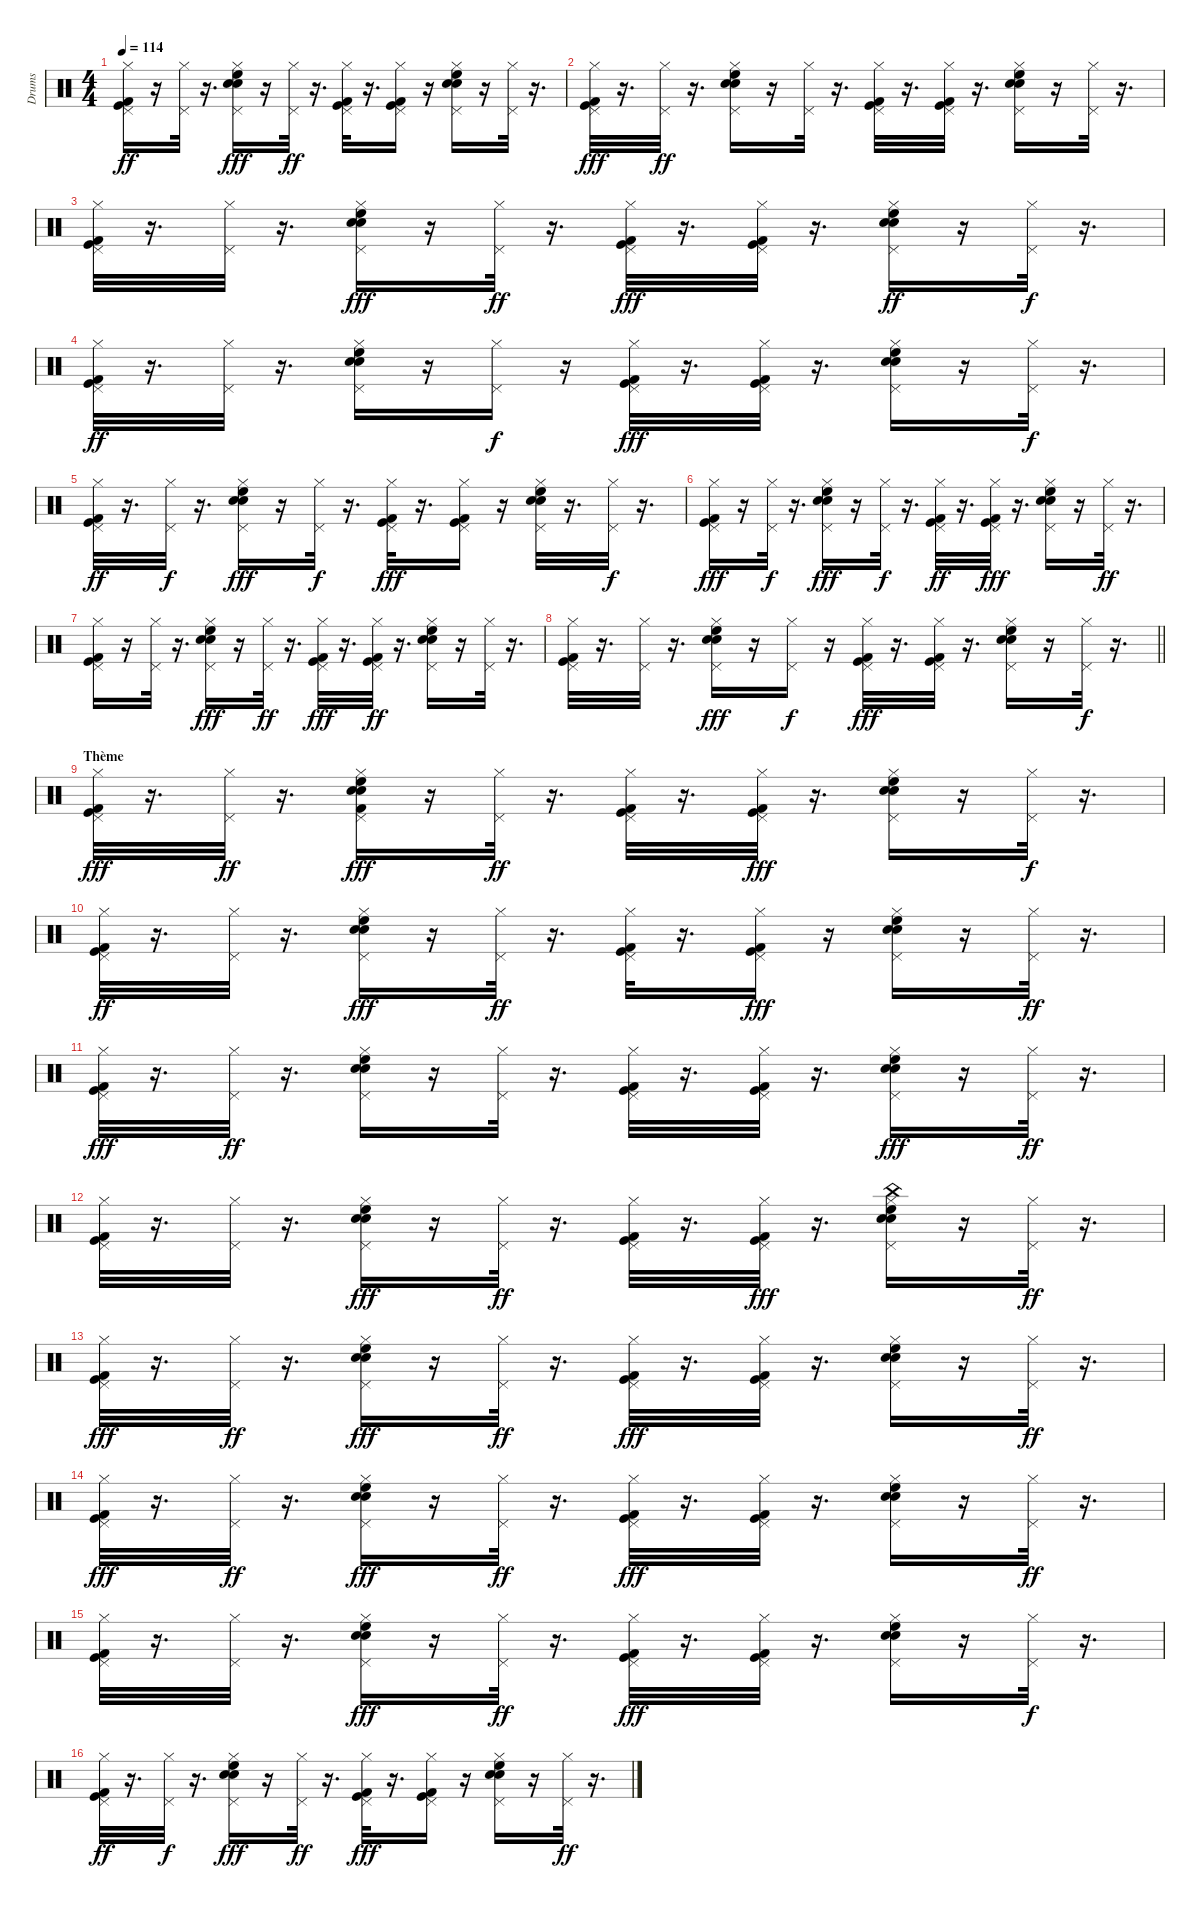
\track ("Drums" "Drums") {instrument percussion}
\staff {score}
\articulation defaults
\ts (4 4)
\tempo 114
\clef neutral
\ks c
("Kick (hit)" "Kick (hit) 2" "Pedal Hi-Hat (hit)" "Hi-Hat (closed)").16{dy ff} r.16 ("Pedal Hi-Hat (hit)" "Hi-Hat (closed)").32 r.16{d} ("Electric Snare (hit)" "Pedal Hi-Hat (hit)" "Hi-Hat (closed)" "High Floor Tom (hit)" "Snare (hit) 2").16{dy fff} r.16 ("Pedal Hi-Hat (hit)" "Hi-Hat (closed)").32{dy ff} r.16{d} ("Kick (hit)" "Kick (hit) 2" "Pedal Hi-Hat (hit)" "Hi-Hat (closed)").32 r.16{d} ("Kick (hit) 2" "Kick (hit)" "Pedal Hi-Hat (hit)" "Hi-Hat (closed)").16 r.16 ("Snare (hit) 2" "Electric Snare (hit)" "High Floor Tom (hit)" "Pedal Hi-Hat (hit)" "Hi-Hat (closed)").16 r.16 ("Pedal Hi-Hat (hit)" "Hi-Hat (closed)").32 r.16{d} |
("Kick (hit)" "Pedal Hi-Hat (hit)" "Hi-Hat (closed)" "Kick (hit) 2").32{dy fff} r.16{d} ("Pedal Hi-Hat (hit)" "Hi-Hat (closed)").32{dy ff} r.16{d} ("High Floor Tom (hit)" "Electric Snare (hit)" "Pedal Hi-Hat (hit)" "Snare (hit) 2" "Hi-Hat (closed)").16 r.16 ("Pedal Hi-Hat (hit)" "Hi-Hat (closed)").32 r.16{d} ("Kick (hit) 2" "Kick (hit)" "Pedal Hi-Hat (hit)" "Hi-Hat (closed)").32 r.16{d} ("Kick (hit) 2" "Kick (hit)" "Pedal Hi-Hat (hit)" "Hi-Hat (closed)").32 r.16{d} ("Electric Snare (hit)" "High Floor Tom (hit)" "Snare (hit) 2" "Pedal Hi-Hat (hit)" "Hi-Hat (closed)").16 r.16 ("Pedal Hi-Hat (hit)" "Hi-Hat (closed)").32 r.16{d} |
("Kick (hit) 2" "Kick (hit)" "Pedal Hi-Hat (hit)" "Hi-Hat (closed)").32 r.16{d} ("Pedal Hi-Hat (hit)" "Hi-Hat (closed)").32 r.16{d} ("Electric Snare (hit)" "Snare (hit) 2" "Pedal Hi-Hat (hit)" "Hi-Hat (closed)" "High Floor Tom (hit)").16{dy fff} r.16 ("Pedal Hi-Hat (hit)" "Hi-Hat (closed)").32{dy ff} r.16{d} ("Kick (hit) 2" "Pedal Hi-Hat (hit)" "Hi-Hat (closed)" "Kick (hit)").32{dy fff} r.16{d} ("Pedal Hi-Hat (hit)" "Hi-Hat (closed)" "Kick (hit) 2" "Kick (hit)").32 r.16{d} ("Electric Snare (hit)" "High Floor Tom (hit)" "Snare (hit) 2" "Pedal Hi-Hat (hit)" "Hi-Hat (closed)").16{dy ff} r.16 ("Pedal Hi-Hat (hit)" "Hi-Hat (closed)").32{dy f} r.16{d} |
("Kick (hit) 2" "Kick (hit)" "Pedal Hi-Hat (hit)" "Hi-Hat (closed)").32{dy ff} r.16{d} ("Pedal Hi-Hat (hit)" "Hi-Hat (closed)").32 r.16{d} ("Electric Snare (hit)" "Snare (hit) 2" "Pedal Hi-Hat (hit)" "High Floor Tom (hit)" "Hi-Hat (closed)").16 r.16 ("Pedal Hi-Hat (hit)" "Hi-Hat (closed)").16{dy f} r.16 ("Kick (hit) 2" "Pedal Hi-Hat (hit)" "Hi-Hat (closed)" "Kick (hit)").32{dy fff} r.16{d} ("Kick (hit) 2" "Pedal Hi-Hat (hit)" "Hi-Hat (closed)" "Kick (hit)").32 r.16{d} ("Snare (hit) 2" "Electric Snare (hit)" "Pedal Hi-Hat (hit)" "Hi-Hat (closed)" "High Floor Tom (hit)").16 r.16 ("Pedal Hi-Hat (hit)" "Hi-Hat (closed)").32{dy f} r.16{d} |
("Kick (hit)" "Pedal Hi-Hat (hit)" "Kick (hit) 2" "Hi-Hat (closed)").32{dy ff} r.16{d} ("Pedal Hi-Hat (hit)" "Hi-Hat (closed)").32{dy f} r.16{d} ("Electric Snare (hit)" "High Floor Tom (hit)" "Pedal Hi-Hat (hit)" "Hi-Hat (closed)" "Snare (hit) 2").16{dy fff} r.16 ("Pedal Hi-Hat (hit)" "Hi-Hat (closed)").32{dy f} r.16{d} ("Kick (hit) 2" "Kick (hit)" "Pedal Hi-Hat (hit)" "Hi-Hat (closed)").32{dy fff} r.16{d} ("Kick (hit)" "Kick (hit) 2" "Pedal Hi-Hat (hit)" "Hi-Hat (closed)").16 r.16 ("Snare (hit) 2" "Electric Snare (hit)" "High Floor Tom (hit)" "Pedal Hi-Hat (hit)" "Hi-Hat (closed)").32 r.16{d} ("Pedal Hi-Hat (hit)" "Hi-Hat (closed)").32{dy f} r.16{d} |
("Kick (hit)" "Pedal Hi-Hat (hit)" "Hi-Hat (closed)" "Kick (hit) 2").16{dy fff} r.16 ("Pedal Hi-Hat (hit)" "Hi-Hat (closed)").32{dy f} r.16{d} ("High Floor Tom (hit)" "Snare (hit) 2" "Pedal Hi-Hat (hit)" "Hi-Hat (closed)" "Electric Snare (hit)").16{dy fff} r.16 ("Pedal Hi-Hat (hit)" "Hi-Hat (closed)").32{dy f} r.16{d} ("Pedal Hi-Hat (hit)" "Kick (hit) 2" "Kick (hit)" "Hi-Hat (closed)").32{dy ff} r.16{d} ("Pedal Hi-Hat (hit)" "Kick (hit)" "Hi-Hat (closed)" "Kick (hit) 2").32{dy fff} r.16{d} ("Snare (hit) 2" "High Floor Tom (hit)" "Pedal Hi-Hat (hit)" "Hi-Hat (closed)" "Electric Snare (hit)").16 r.16 ("Pedal Hi-Hat (hit)" "Hi-Hat (closed)").32{dy ff} r.16{d} |
("Kick (hit)" "Kick (hit) 2" "Pedal Hi-Hat (hit)" "Hi-Hat (closed)").16 r.16 ("Pedal Hi-Hat (hit)" "Hi-Hat (closed)").32 r.16{d} ("Snare (hit) 2" "Pedal Hi-Hat (hit)" "Hi-Hat (closed)" "High Floor Tom (hit)" "Electric Snare (hit)").16{dy fff} r.16 ("Pedal Hi-Hat (hit)" "Hi-Hat (closed)").32{dy ff} r.16{d} ("Pedal Hi-Hat (hit)" "Hi-Hat (closed)" "Kick (hit) 2" "Kick (hit)").32{dy fff} r.16{d} ("Pedal Hi-Hat (hit)" "Kick (hit) 2" "Kick (hit)" "Hi-Hat (closed)").32{dy ff} r.16{d} ("Snare (hit) 2" "High Floor Tom (hit)" "Electric Snare (hit)" "Pedal Hi-Hat (hit)" "Hi-Hat (closed)").16 r.16 ("Pedal Hi-Hat (hit)" "Hi-Hat (closed)").32 r.16{d} |
\barLineRight lightlight
("Kick (hit)" "Kick (hit) 2" "Pedal Hi-Hat (hit)" "Hi-Hat (closed)").32 r.16{d} ("Pedal Hi-Hat (hit)" "Hi-Hat (closed)").32 r.16{d} ("Pedal Hi-Hat (hit)" "Snare (hit) 2" "Hi-Hat (closed)" "Electric Snare (hit)" "High Floor Tom (hit)").16{dy fff} r.16 ("Pedal Hi-Hat (hit)" "Hi-Hat (closed)").16{dy f} r.16 ("Pedal Hi-Hat (hit)" "Hi-Hat (closed)" "Kick (hit) 2" "Kick (hit)").32{dy fff} r.16{d} ("Pedal Hi-Hat (hit)" "Hi-Hat (closed)" "Kick (hit)" "Kick (hit) 2").32 r.16{d} ("Snare (hit) 2" "Pedal Hi-Hat (hit)" "Hi-Hat (closed)" "Electric Snare (hit)" "High Floor Tom (hit)").16 r.16 ("Pedal Hi-Hat (hit)" "Hi-Hat (closed)").32{dy f} r.16{d} |
\section ("" "Thème")
("Pedal Hi-Hat (hit)" "Kick (hit)" "Hi-Hat (closed)" "Kick (hit) 2").32{dy fff} r.16{d} ("Pedal Hi-Hat (hit)" "Hi-Hat (closed)").32{dy ff} r.16{d} ("Kick (hit) 2" "Pedal Hi-Hat (hit)" "Snare (hit) 2" "Hi-Hat (closed)" "High Floor Tom (hit)" "Electric Snare (hit)").16{dy fff} r.16 ("Pedal Hi-Hat (hit)" "Hi-Hat (closed)").32{dy ff} r.16{d} ("Pedal Hi-Hat (hit)" "Kick (hit) 2" "Kick (hit)" "Hi-Hat (closed)").32 r.16{d} ("Pedal Hi-Hat (hit)" "Hi-Hat (closed)" "Kick (hit)" "Kick (hit) 2").32{dy fff} r.16{d} ("Pedal Hi-Hat (hit)" "Hi-Hat (closed)" "High Floor Tom (hit)" "Electric Snare (hit)" "Snare (hit) 2").16 r.16 ("Pedal Hi-Hat (hit)" "Hi-Hat (closed)").32{dy f} r.16{d} |
("Kick (hit)" "Kick (hit) 2" "Pedal Hi-Hat (hit)" "Hi-Hat (closed)").32{dy ff} r.16{d} ("Pedal Hi-Hat (hit)" "Hi-Hat (closed)").32 r.16{d} ("Electric Snare (hit)" "Pedal Hi-Hat (hit)" "Snare (hit) 2" "Hi-Hat (closed)" "High Floor Tom (hit)").16{dy fff} r.16 ("Pedal Hi-Hat (hit)" "Hi-Hat (closed)").32{dy ff} r.16{d} ("Kick (hit)" "Kick (hit) 2" "Pedal Hi-Hat (hit)" "Hi-Hat (closed)").32 r.16{d} ("Kick (hit)" "Pedal Hi-Hat (hit)" "Hi-Hat (closed)" "Kick (hit) 2").16{dy fff} r.16 ("Electric Snare (hit)" "High Floor Tom (hit)" "Pedal Hi-Hat (hit)" "Hi-Hat (closed)" "Snare (hit) 2").16 r.16 ("Pedal Hi-Hat (hit)" "Hi-Hat (closed)").32{dy ff} r.16{d} |
("Kick (hit)" "Pedal Hi-Hat (hit)" "Hi-Hat (closed)" "Kick (hit) 2").32{dy fff} r.16{d} ("Pedal Hi-Hat (hit)" "Hi-Hat (closed)").32{dy ff} r.16{d} ("Electric Snare (hit)" "High Floor Tom (hit)" "Pedal Hi-Hat (hit)" "Snare (hit) 2" "Hi-Hat (closed)").16 r.16 ("Pedal Hi-Hat (hit)" "Hi-Hat (closed)").32 r.16{d} ("Kick (hit) 2" "Kick (hit)" "Pedal Hi-Hat (hit)" "Hi-Hat (closed)").32 r.16{d} ("Kick (hit) 2" "Kick (hit)" "Pedal Hi-Hat (hit)" "Hi-Hat (closed)").32 r.16{d} ("Snare (hit) 2" "Electric Snare (hit)" "Pedal Hi-Hat (hit)" "Hi-Hat (closed)" "High Floor Tom (hit)").16{dy fff} r.16 ("Pedal Hi-Hat (hit)" "Hi-Hat (closed)").32{dy ff} r.16{d} |
("Kick (hit)" "Kick (hit) 2" "Pedal Hi-Hat (hit)" "Hi-Hat (closed)").32 r.16{d} ("Pedal Hi-Hat (hit)" "Hi-Hat (closed)").32 r.16{d} ("Electric Snare (hit)" "Pedal Hi-Hat (hit)" "Hi-Hat (closed)" "Snare (hit) 2" "High Floor Tom (hit)").16{dy fff} r.16 ("Pedal Hi-Hat (hit)" "Hi-Hat (closed)").32{dy ff} r.16{d} ("Kick (hit)" "Kick (hit) 2" "Pedal Hi-Hat (hit)" "Hi-Hat (closed)").32 r.16{d} ("Kick (hit)" "Pedal Hi-Hat (hit)" "Hi-Hat (closed)" "Kick (hit) 2").32{dy fff} r.16{d} ("Snare (hit) 2" "Electric Snare (hit)" "Pedal Hi-Hat (hit)" "Hi-Hat (closed)" "China (hit)" "High Floor Tom (hit)").16 r.16 ("Pedal Hi-Hat (hit)" "Hi-Hat (closed)").32{dy ff} r.16{d} |
("Kick (hit)" "Pedal Hi-Hat (hit)" "Hi-Hat (closed)" "Kick (hit) 2").32{dy fff} r.16{d} ("Pedal Hi-Hat (hit)" "Hi-Hat (closed)").32{dy ff} r.16{d} ("Pedal Hi-Hat (hit)" "Hi-Hat (closed)" "Snare (hit) 2" "Electric Snare (hit)" "High Floor Tom (hit)").16{dy fff} r.16 ("Pedal Hi-Hat (hit)" "Hi-Hat (closed)").32{dy ff} r.16{d} ("Pedal Hi-Hat (hit)" "Hi-Hat (closed)" "Kick (hit)" "Kick (hit) 2").32{dy fff} r.16{d} ("Pedal Hi-Hat (hit)" "Hi-Hat (closed)" "Kick (hit)" "Kick (hit) 2").32 r.16{d} ("Snare (hit) 2" "High Floor Tom (hit)" "Pedal Hi-Hat (hit)" "Hi-Hat (closed)" "Electric Snare (hit)").16 r.16 ("Pedal Hi-Hat (hit)" "Hi-Hat (closed)").32{dy ff} r.16{d} |
("Kick (hit)" "Hi-Hat (closed)" "Pedal Hi-Hat (hit)" "Kick (hit) 2").32{dy fff} r.16{d} ("Hi-Hat (closed)" "Pedal Hi-Hat (hit)").32{dy ff} r.16{d} ("Snare (hit) 2" "Pedal Hi-Hat (hit)" "Hi-Hat (closed)" "Electric Snare (hit)" "High Floor Tom (hit)").16{dy fff} r.16 ("Pedal Hi-Hat (hit)" "Hi-Hat (closed)").32{dy ff} r.16{d} ("Pedal Hi-Hat (hit)" "Kick (hit)" "Hi-Hat (closed)" "Kick (hit) 2").32{dy fff} r.16{d} ("Kick (hit)" "Pedal Hi-Hat (hit)" "Hi-Hat (closed)" "Kick (hit) 2").32 r.16{d} ("Snare (hit) 2" "High Floor Tom (hit)" "Pedal Hi-Hat (hit)" "Hi-Hat (closed)" "Electric Snare (hit)").16 r.16 ("Pedal Hi-Hat (hit)" "Hi-Hat (closed)").32{dy ff} r.16{d} |
("Kick (hit)" "Kick (hit) 2" "Pedal Hi-Hat (hit)" "Hi-Hat (closed)").32 r.16{d} ("Pedal Hi-Hat (hit)" "Hi-Hat (closed)").32 r.16{d} ("Snare (hit) 2" "Pedal Hi-Hat (hit)" "Hi-Hat (closed)" "High Floor Tom (hit)" "Electric Snare (hit)").16{dy fff} r.16 ("Pedal Hi-Hat (hit)" "Hi-Hat (closed)").32{dy ff} r.16{d} ("Kick (hit)" "Pedal Hi-Hat (hit)" "Hi-Hat (closed)" "Kick (hit) 2").32{dy fff} r.16{d} ("Pedal Hi-Hat (hit)" "Hi-Hat (closed)" "Kick (hit) 2" "Kick (hit)").32 r.16{d} ("Snare (hit) 2" "Pedal Hi-Hat (hit)" "Hi-Hat (closed)" "Electric Snare (hit)" "High Floor Tom (hit)").16 r.16 ("Pedal Hi-Hat (hit)" "Hi-Hat (closed)").32{dy f} r.16{d} |
("Kick (hit)" "Pedal Hi-Hat (hit)" "Kick (hit) 2" "Hi-Hat (closed)").32{dy ff} r.16{d} ("Pedal Hi-Hat (hit)" "Hi-Hat (closed)").32{dy f} r.16{d} ("Pedal Hi-Hat (hit)" "Hi-Hat (closed)" "Electric Snare (hit)" "Snare (hit) 2" "High Floor Tom (hit)").16{dy fff} r.16 ("Pedal Hi-Hat (hit)" "Hi-Hat (closed)").32{dy ff} r.16{d} ("Pedal Hi-Hat (hit)" "Hi-Hat (closed)" "Kick (hit)" "Kick (hit) 2").32{dy fff} r.16{d} ("Pedal Hi-Hat (hit)" "Hi-Hat (closed)" "Kick (hit)" "Kick (hit) 2").16 r.16 ("Pedal Hi-Hat (hit)" "Snare (hit) 2" "Hi-Hat (closed)" "High Floor Tom (hit)" "Electric Snare (hit)").16 r.16 ("Pedal Hi-Hat (hit)" "Hi-Hat (closed)").32{dy ff} r.16{d}
